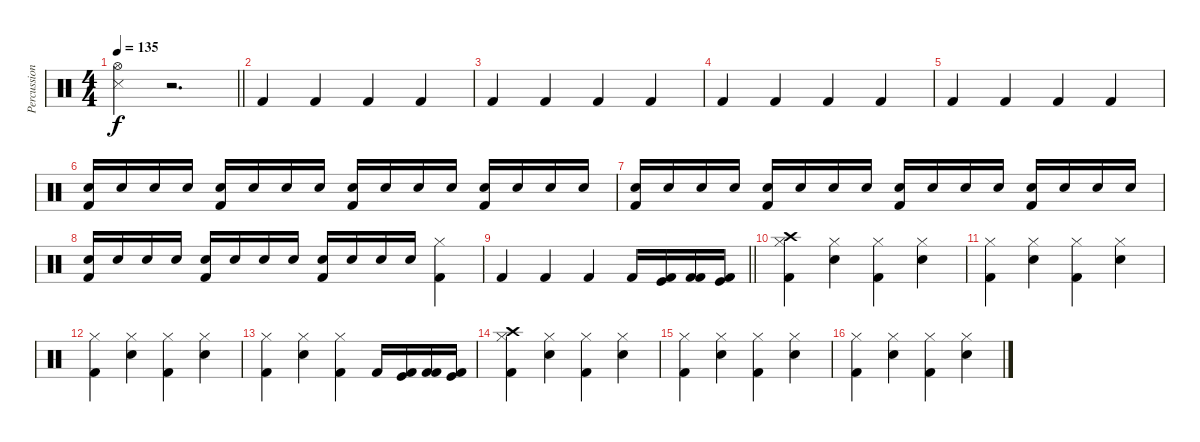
\track ("Percussion" "Percussion") {instrument percussion}
\staff {score}
\articulation defaults
\ts (4 4)
\tempo 135
\clef neutral
\barLineRight lightlight
\ks c
("Hi-Hat (open)" "Snare (side stick) 3").4{dy f} r.2{d} |
"Kick (hit) 2".4 "Kick (hit) 2".4 "Kick (hit) 2".4 "Kick (hit) 2".4 |
"Kick (hit) 2".4 "Kick (hit) 2".4 "Kick (hit) 2".4 "Kick (hit) 2".4 |
"Kick (hit) 2".4 "Kick (hit) 2".4 "Kick (hit) 2".4 "Kick (hit) 2".4 |
"Kick (hit) 2".4 "Kick (hit) 2".4 "Kick (hit) 2".4 "Kick (hit) 2".4 |
("Snare (hit) 2" "Kick (hit) 2").16 "Snare (hit) 2".16 "Snare (hit) 2".16 "Snare (hit) 2".16 ("Snare (hit) 2" "Kick (hit) 2").16 "Snare (hit) 2".16 "Snare (hit) 2".16 "Snare (hit) 2".16 ("Snare (hit) 2" "Kick (hit) 2").16 "Snare (hit) 2".16 "Snare (hit) 2".16 "Snare (hit) 2".16 ("Snare (hit) 2" "Kick (hit) 2").16 "Snare (hit) 2".16 "Snare (hit) 2".16 "Snare (hit) 2".16 |
("Snare (hit) 2" "Kick (hit) 2").16 "Snare (hit) 2".16 "Snare (hit) 2".16 "Snare (hit) 2".16 ("Snare (hit) 2" "Kick (hit) 2").16 "Snare (hit) 2".16 "Snare (hit) 2".16 "Snare (hit) 2".16 ("Snare (hit) 2" "Kick (hit) 2").16 "Snare (hit) 2".16 "Snare (hit) 2".16 "Snare (hit) 2".16 ("Snare (hit) 2" "Kick (hit) 2").16 "Snare (hit) 2".16 "Snare (hit) 2".16 "Snare (hit) 2".16 |
("Snare (hit) 2" "Kick (hit) 2").16 "Snare (hit) 2".16 "Snare (hit) 2".16 "Snare (hit) 2".16 ("Snare (hit) 2" "Kick (hit) 2").16 "Snare (hit) 2".16 "Snare (hit) 2".16 "Snare (hit) 2".16 ("Snare (hit) 2" "Kick (hit) 2").16 "Snare (hit) 2".16 "Snare (hit) 2".16 "Snare (hit) 2".16 ("Hi-Hat (closed)" "Kick (hit) 2").4 |
\barLineRight lightlight "Kick (hit) 2".4 "Kick (hit) 2".4 "Kick (hit) 2".4 "Kick (hit) 2".16
("Kick (hit)" "Kick (hit) 2").16 ("Kick (hit) 2" "Kick (hit) 2").16 ("Kick (hit)" "Kick (hit) 2").16 |
("Crash high (hit)" "Kick (hit) 2" "Hi-Hat (closed)").4 ("Snare (hit) 2" "Hi-Hat (closed)").4 ("Kick (hit) 2" "Hi-Hat (closed)").4 ("Snare (hit) 2" "Hi-Hat (closed)").4 |
("Kick (hit) 2" "Hi-Hat (closed)").4 ("Snare (hit) 2" "Hi-Hat (closed)").4 ("Kick (hit) 2" "Hi-Hat (closed)").4 ("Snare (hit) 2" "Hi-Hat (closed)").4 |
("Kick (hit) 2" "Hi-Hat (closed)").4 ("Snare (hit) 2" "Hi-Hat (closed)").4 ("Kick (hit) 2" "Hi-Hat (closed)").4 ("Snare (hit) 2" "Hi-Hat (closed)").4 |
("Kick (hit) 2" "Hi-Hat (closed)").4 ("Snare (hit) 2" "Hi-Hat (closed)").4 ("Kick (hit) 2" "Hi-Hat (closed)").4 "Kick (hit) 2".16 ("Kick (hit)" "Kick (hit) 2").16 ("Kick (hit) 2" "Kick (hit) 2").16 ("Kick (hit)" "Kick (hit) 2").16 |
("Crash high (hit)" "Kick (hit) 2" "Hi-Hat (closed)").4 ("Snare (hit) 2" "Hi-Hat (closed)").4 ("Kick (hit) 2" "Hi-Hat (closed)").4 ("Snare (hit) 2" "Hi-Hat (closed)").4 |
("Kick (hit) 2" "Hi-Hat (closed)").4 ("Snare (hit) 2" "Hi-Hat (closed)").4 ("Kick (hit) 2" "Hi-Hat (closed)").4 ("Snare (hit) 2" "Hi-Hat (closed)").4 |
("Kick (hit) 2" "Hi-Hat (closed)").4 ("Snare (hit) 2" "Hi-Hat (closed)").4 ("Kick (hit) 2" "Hi-Hat (closed)").4 ("Snare (hit) 2" "Hi-Hat (closed)").4
